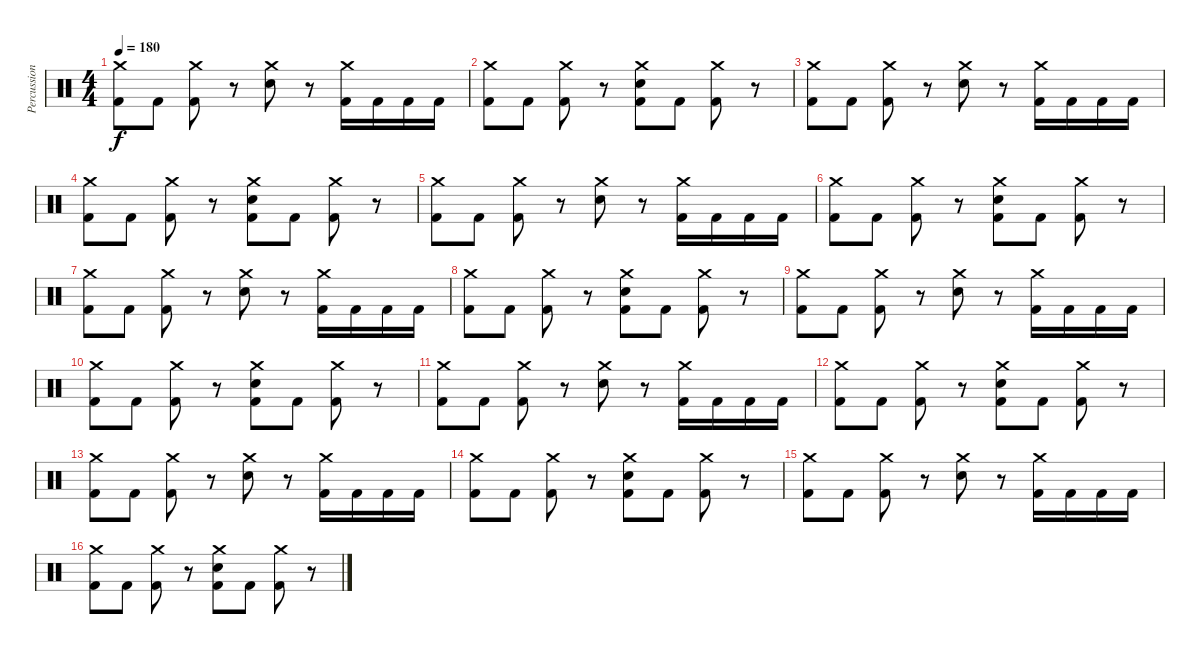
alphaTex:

\track ("Percussion" "Percussion") {instrument percussion}
\staff {score}
\articulation defaults
\ts (4 4)
\tempo 180
\clef neutral
\ks c
("Crash medium (hit)" "Kick (hit) 2").8{dy f} "Kick (hit) 2".8 ("Crash medium (hit)" "Kick (hit) 2").8 r.8 ("Crash medium (hit)" "Electric Snare (hit)").8 r.8 ("Crash medium (hit)" "Kick (hit) 2").16 "Kick (hit) 2".16 "Kick (hit) 2".16 "Kick (hit) 2".16 |
("Crash medium (hit)" "Kick (hit) 2").8 "Kick (hit) 2".8 ("Crash medium (hit)" "Kick (hit) 2").8 r.8 ("Crash medium (hit)" "Electric Snare (hit)" "Kick (hit) 2").8 "Kick (hit) 2".8 ("Crash medium (hit)" "Kick (hit) 2").8 r.8 |
("Crash medium (hit)" "Kick (hit) 2").8 "Kick (hit) 2".8 ("Crash medium (hit)" "Kick (hit) 2").8 r.8 ("Crash medium (hit)" "Electric Snare (hit)").8 r.8 ("Crash medium (hit)" "Kick (hit) 2").16 "Kick (hit) 2".16 "Kick (hit) 2".16 "Kick (hit) 2".16 |
("Crash medium (hit)" "Kick (hit) 2").8 "Kick (hit) 2".8 ("Crash medium (hit)" "Kick (hit) 2").8 r.8 ("Crash medium (hit)" "Electric Snare (hit)" "Kick (hit) 2").8 "Kick (hit) 2".8 ("Crash medium (hit)" "Kick (hit) 2").8 r.8 |
("Crash medium (hit)" "Kick (hit) 2").8 "Kick (hit) 2".8 ("Crash medium (hit)" "Kick (hit) 2").8 r.8 ("Crash medium (hit)" "Electric Snare (hit)").8 r.8 ("Crash medium (hit)" "Kick (hit) 2").16 "Kick (hit) 2".16 "Kick (hit) 2".16 "Kick (hit) 2".16 |
("Crash medium (hit)" "Kick (hit) 2").8 "Kick (hit) 2".8 ("Crash medium (hit)" "Kick (hit) 2").8 r.8 ("Crash medium (hit)" "Electric Snare (hit)" "Kick (hit) 2").8 "Kick (hit) 2".8 ("Crash medium (hit)" "Kick (hit) 2").8 r.8 |
("Crash medium (hit)" "Kick (hit) 2").8 "Kick (hit) 2".8 ("Crash medium (hit)" "Kick (hit) 2").8 r.8 ("Crash medium (hit)" "Electric Snare (hit)").8 r.8 ("Crash medium (hit)" "Kick (hit) 2").16 "Kick (hit) 2".16 "Kick (hit) 2".16 "Kick (hit) 2".16 |
("Crash medium (hit)" "Kick (hit) 2").8 "Kick (hit) 2".8 ("Crash medium (hit)" "Kick (hit) 2").8 r.8 ("Crash medium (hit)" "Electric Snare (hit)" "Kick (hit) 2").8 "Kick (hit) 2".8 ("Crash medium (hit)" "Kick (hit) 2").8 r.8 |
("Crash medium (hit)" "Kick (hit) 2").8 "Kick (hit) 2".8 ("Crash medium (hit)" "Kick (hit) 2").8 r.8 ("Crash medium (hit)" "Electric Snare (hit)").8 r.8 ("Crash medium (hit)" "Kick (hit) 2").16 "Kick (hit) 2".16 "Kick (hit) 2".16 "Kick (hit) 2".16 |
("Crash medium (hit)" "Kick (hit) 2").8 "Kick (hit) 2".8 ("Crash medium (hit)" "Kick (hit) 2").8 r.8 ("Crash medium (hit)" "Electric Snare (hit)" "Kick (hit) 2").8 "Kick (hit) 2".8 ("Crash medium (hit)" "Kick (hit) 2").8 r.8 |
("Crash medium (hit)" "Kick (hit) 2").8 "Kick (hit) 2".8 ("Crash medium (hit)" "Kick (hit) 2").8 r.8 ("Crash medium (hit)" "Electric Snare (hit)").8 r.8 ("Crash medium (hit)" "Kick (hit) 2").16 "Kick (hit) 2".16 "Kick (hit) 2".16 "Kick (hit) 2".16 |
("Crash medium (hit)" "Kick (hit) 2").8 "Kick (hit) 2".8 ("Crash medium (hit)" "Kick (hit) 2").8 r.8 ("Crash medium (hit)" "Electric Snare (hit)" "Kick (hit) 2").8 "Kick (hit) 2".8 ("Crash medium (hit)" "Kick (hit) 2").8 r.8 |
("Crash medium (hit)" "Kick (hit) 2").8 "Kick (hit) 2".8 ("Crash medium (hit)" "Kick (hit) 2").8 r.8 ("Crash medium (hit)" "Electric Snare (hit)").8 r.8 ("Crash medium (hit)" "Kick (hit) 2").16 "Kick (hit) 2".16 "Kick (hit) 2".16 "Kick (hit) 2".16 |
("Crash medium (hit)" "Kick (hit) 2").8 "Kick (hit) 2".8 ("Crash medium (hit)" "Kick (hit) 2").8 r.8 ("Crash medium (hit)" "Electric Snare (hit)" "Kick (hit) 2").8 "Kick (hit) 2".8 ("Crash medium (hit)" "Kick (hit) 2").8 r.8 |
("Crash medium (hit)" "Kick (hit) 2").8 "Kick (hit) 2".8 ("Crash medium (hit)" "Kick (hit) 2").8 r.8 ("Crash medium (hit)" "Electric Snare (hit)").8 r.8 ("Crash medium (hit)" "Kick (hit) 2").16 "Kick (hit) 2".16 "Kick (hit) 2".16 "Kick (hit) 2".16 |
("Crash medium (hit)" "Kick (hit) 2").8 "Kick (hit) 2".8 ("Crash medium (hit)" "Kick (hit) 2").8 r.8 ("Crash medium (hit)" "Electric Snare (hit)" "Kick (hit) 2").8 "Kick (hit) 2".8 ("Crash medium (hit)" "Kick (hit) 2").8 r.8
